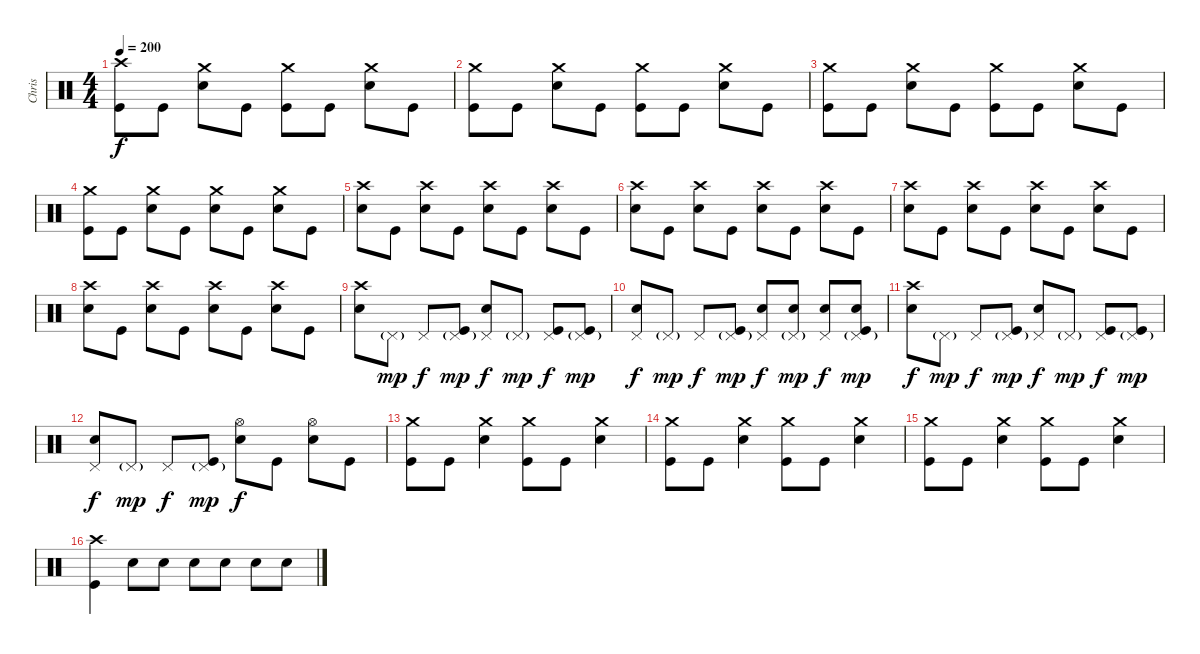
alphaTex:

\track ("Chris" "Chris") {instrument percussion}
\staff {score}
\articulation defaults
\ts (4 4)
\tempo 200
\clef neutral
\ks c
("Crash high (hit)" "Kick (hit)").8{dy f} "Kick (hit)".8 ("Crash medium (hit)" "Electric Snare (hit)").8 "Kick (hit)".8 ("Crash medium (hit)" "Kick (hit)").8 "Kick (hit)".8 ("Crash medium (hit)" "Electric Snare (hit)").8 "Kick (hit)".8 |
("Crash medium (hit)" "Kick (hit)").8 "Kick (hit)".8 ("Crash medium (hit)" "Electric Snare (hit)").8 "Kick (hit)".8 ("Crash medium (hit)" "Kick (hit)").8 "Kick (hit)".8 ("Crash medium (hit)" "Electric Snare (hit)").8 "Kick (hit)".8 |
("Crash medium (hit)" "Kick (hit)").8 "Kick (hit)".8 ("Crash medium (hit)" "Electric Snare (hit)").8 "Kick (hit)".8 ("Crash medium (hit)" "Kick (hit)").8 "Kick (hit)".8 ("Crash medium (hit)" "Electric Snare (hit)").8 "Kick (hit)".8 |
("Crash medium (hit)" "Kick (hit)").8 "Kick (hit)".8 ("Crash medium (hit)" "Electric Snare (hit)").8 "Kick (hit)".8 ("Crash medium (hit)" "Electric Snare (hit)").8 "Kick (hit)".8 ("Crash medium (hit)" "Electric Snare (hit)").8 "Kick (hit)".8 |
("Crash high (hit)" "Electric Snare (hit)").8 "Kick (hit)".8 ("Crash high (hit)" "Electric Snare (hit)").8 "Kick (hit)".8 ("Crash high (hit)" "Electric Snare (hit)").8 "Kick (hit)".8 ("Crash high (hit)" "Electric Snare (hit)").8 "Kick (hit)".8 |
("Crash high (hit)" "Electric Snare (hit)").8 "Kick (hit)".8 ("Crash high (hit)" "Electric Snare (hit)").8 "Kick (hit)".8 ("Crash high (hit)" "Electric Snare (hit)").8 "Kick (hit)".8 ("Crash high (hit)" "Electric Snare (hit)").8 "Kick (hit)".8 |
("Crash high (hit)" "Electric Snare (hit)").8 "Kick (hit)".8 ("Crash high (hit)" "Electric Snare (hit)").8 "Kick (hit)".8 ("Crash high (hit)" "Electric Snare (hit)").8 "Kick (hit)".8 ("Crash high (hit)" "Electric Snare (hit)").8 "Kick (hit)".8 |
("Crash high (hit)" "Electric Snare (hit)").8 "Kick (hit)".8 ("Crash high (hit)" "Electric Snare (hit)").8 "Kick (hit)".8 ("Crash high (hit)" "Electric Snare (hit)").8 "Kick (hit)".8 ("Crash high (hit)" "Electric Snare (hit)").8 "Kick (hit)".8 |
("Crash high (hit)" "Electric Snare (hit)").8 "Pedal Hi-Hat (hit)"{g}.8{dy mp} "Pedal Hi-Hat (hit)".8{dy f} ("Pedal Hi-Hat (hit)"{g} "Kick (hit)").8{dy mp} ("Pedal Hi-Hat (hit)" "Electric Snare (hit)").8{dy f} "Pedal Hi-Hat (hit)"{g}.8{dy mp} ("Pedal Hi-Hat (hit)" "Kick (hit)").8{dy f} ("Pedal Hi-Hat (hit)"{g} "Kick (hit)").8{dy mp} |
("Pedal Hi-Hat (hit)" "Electric Snare (hit)").8{dy f} "Pedal Hi-Hat (hit)"{g}.8{dy mp} "Pedal Hi-Hat (hit)".8{dy f} ("Pedal Hi-Hat (hit)"{g} "Kick (hit)").8{dy mp} ("Pedal Hi-Hat (hit)" "Electric Snare (hit)").8{dy f} ("Pedal Hi-Hat (hit)"{g} "Electric Snare (hit)").8{dy mp} ("Pedal Hi-Hat (hit)" "Electric Snare (hit)").8{dy f} ("Pedal Hi-Hat (hit)"{g} "Electric Snare (hit)" "Kick (hit)").8{dy mp} |
("Crash high (hit)" "Electric Snare (hit)").8{dy f} "Pedal Hi-Hat (hit)"{g}.8{dy mp} "Pedal Hi-Hat (hit)".8{dy f} ("Pedal Hi-Hat (hit)"{g} "Kick (hit)").8{dy mp} ("Pedal Hi-Hat (hit)" "Electric Snare (hit)").8{dy f} "Pedal Hi-Hat (hit)"{g}.8{dy mp} ("Pedal Hi-Hat (hit)" "Kick (hit)").8{dy f} ("Pedal Hi-Hat (hit)"{g} "Kick (hit)").8{dy mp} |
("Pedal Hi-Hat (hit)" "Electric Snare (hit)").8{dy f} "Pedal Hi-Hat (hit)"{g}.8{dy mp} "Pedal Hi-Hat (hit)".8{dy f} ("Pedal Hi-Hat (hit)"{g} "Kick (hit)").8{dy mp} ("Hi-Hat (open)" "Electric Snare (hit)").8{dy f} "Kick (hit)".8 ("Hi-Hat (open)" "Electric Snare (hit)").8 "Kick (hit)".8 |
("Crash medium (hit)" "Kick (hit)").8 "Kick (hit)".8 ("Crash medium (hit)" "Electric Snare (hit)").4 ("Crash medium (hit)" "Kick (hit)").8 "Kick (hit)".8 ("Crash medium (hit)" "Electric Snare (hit)").4 |
("Crash medium (hit)" "Kick (hit)").8 "Kick (hit)".8 ("Crash medium (hit)" "Electric Snare (hit)").4 ("Crash medium (hit)" "Kick (hit)").8 "Kick (hit)".8 ("Crash medium (hit)" "Electric Snare (hit)").4 |
("Crash medium (hit)" "Kick (hit)").8 "Kick (hit)".8 ("Crash medium (hit)" "Electric Snare (hit)").4 ("Crash medium (hit)" "Kick (hit)").8 "Kick (hit)".8 ("Crash medium (hit)" "Electric Snare (hit)").4 |
("Crash high (hit)" "Kick (hit)").4 "Electric Snare (hit)".8 "Electric Snare (hit)".8 "Electric Snare (hit)".8 "Electric Snare (hit)".8 "Electric Snare (hit)".8 "Electric Snare (hit)".8
